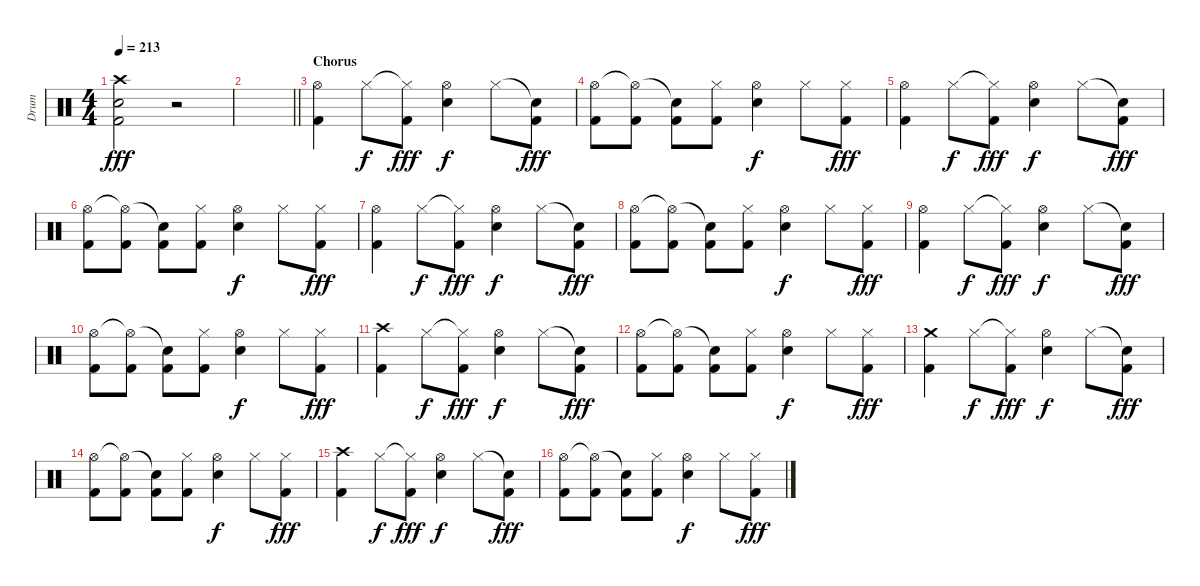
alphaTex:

\track ("Drum" "Drum") {instrument percussion}
\staff {score}
\articulation defaults
\ts (4 4)
\tempo 213
\clef neutral
\ks c
("Crash high (hit)" "Snare (hit) 2" "Kick (hit) 2").2{dy fff} r.2 |
\barLineRight lightlight
|
\section ("" "Chorus")
("Hi-Hat (open)" "Kick (hit) 2").4 "Hi-Hat (closed)".8{dy f} ("Hi-Hat (closed)"{t} "Kick (hit) 2").8{dy fff} ("Hi-Hat (open)" "Snare (hit) 2").4{dy f} "Hi-Hat (closed)".8 ("Snare (hit)"{t} "Kick (hit) 2").8{dy fff} |
("Hi-Hat (open)" "Kick (hit) 2").8 ("Hi-Hat (open)"{t} "Kick (hit) 2").8 ("Snare (hit)"{t} "Kick (hit) 2").8 ("Hi-Hat (closed)" "Kick (hit) 2").8 ("Hi-Hat (open)" "Snare (hit) 2").4{dy f} "Hi-Hat (closed)".8 ("Hi-Hat (closed)" "Kick (hit) 2").8{dy fff} |
("Hi-Hat (open)" "Kick (hit) 2").4 "Hi-Hat (closed)".8{dy f} ("Hi-Hat (closed)"{t} "Kick (hit) 2").8{dy fff} ("Hi-Hat (open)" "Snare (hit) 2").4{dy f} "Hi-Hat (closed)".8 ("Snare (hit)"{t} "Kick (hit) 2").8{dy fff} |
("Hi-Hat (open)" "Kick (hit) 2").8 ("Hi-Hat (open)"{t} "Kick (hit) 2").8 ("Snare (hit)"{t} "Kick (hit) 2").8 ("Hi-Hat (closed)" "Kick (hit) 2").8 ("Hi-Hat (open)" "Snare (hit) 2").4{dy f} "Hi-Hat (closed)".8 ("Hi-Hat (closed)" "Kick (hit) 2").8{dy fff} |
("Hi-Hat (open)" "Kick (hit) 2").4 "Hi-Hat (closed)".8{dy f} ("Hi-Hat (closed)"{t} "Kick (hit) 2").8{dy fff} ("Hi-Hat (open)" "Snare (hit) 2").4{dy f} "Hi-Hat (closed)".8 ("Snare (hit)"{t} "Kick (hit) 2").8{dy fff} |
("Hi-Hat (open)" "Kick (hit) 2").8 ("Hi-Hat (open)"{t} "Kick (hit) 2").8 ("Snare (hit)"{t} "Kick (hit) 2").8 ("Hi-Hat (closed)" "Kick (hit) 2").8 ("Hi-Hat (open)" "Snare (hit) 2").4{dy f} "Hi-Hat (closed)".8 ("Hi-Hat (closed)" "Kick (hit) 2").8{dy fff} |
("Hi-Hat (open)" "Kick (hit) 2").4 "Hi-Hat (closed)".8{dy f} ("Hi-Hat (closed)"{t} "Kick (hit) 2").8{dy fff} ("Hi-Hat (open)" "Snare (hit) 2").4{dy f} "Hi-Hat (closed)".8 ("Snare (hit)"{t} "Kick (hit) 2").8{dy fff} |
("Hi-Hat (open)" "Kick (hit) 2").8 ("Hi-Hat (open)"{t} "Kick (hit) 2").8 ("Snare (hit)"{t} "Kick (hit) 2").8 ("Hi-Hat (closed)" "Kick (hit) 2").8 ("Hi-Hat (open)" "Snare (hit) 2").4{dy f} "Hi-Hat (closed)".8 ("Hi-Hat (closed)" "Kick (hit) 2").8{dy fff} |
("Crash high (hit)" "Kick (hit) 2").4 "Hi-Hat (closed)".8{dy f} ("Hi-Hat (closed)"{t} "Kick (hit) 2").8{dy fff} ("Hi-Hat (open)" "Snare (hit) 2").4{dy f} "Hi-Hat (closed)".8 ("Snare (hit)"{t} "Kick (hit) 2").8{dy fff} |
("Hi-Hat (open)" "Kick (hit) 2").8 ("Hi-Hat (open)"{t} "Kick (hit) 2").8 ("Snare (hit)"{t} "Kick (hit) 2").8 ("Hi-Hat (closed)" "Kick (hit) 2").8 ("Hi-Hat (open)" "Snare (hit) 2").4{dy f} "Hi-Hat (closed)".8 ("Hi-Hat (closed)" "Kick (hit) 2").8{dy fff} |
("Crash medium (hit)" "Kick (hit) 2").4 "Hi-Hat (closed)".8{dy f} ("Hi-Hat (closed)"{t} "Kick (hit) 2").8{dy fff} ("Hi-Hat (open)" "Snare (hit) 2").4{dy f} "Hi-Hat (closed)".8 ("Snare (hit)"{t} "Kick (hit) 2").8{dy fff} |
("Hi-Hat (open)" "Kick (hit) 2").8 ("Hi-Hat (open)"{t} "Kick (hit) 2").8 ("Snare (hit)"{t} "Kick (hit) 2").8 ("Hi-Hat (closed)" "Kick (hit) 2").8 ("Hi-Hat (open)" "Snare (hit) 2").4{dy f} "Hi-Hat (closed)".8 ("Hi-Hat (closed)" "Kick (hit) 2").8{dy fff} |
("Crash high (hit)" "Kick (hit) 2").4 "Hi-Hat (closed)".8{dy f} ("Hi-Hat (closed)"{t} "Kick (hit) 2").8{dy fff} ("Hi-Hat (open)" "Snare (hit) 2").4{dy f} "Hi-Hat (closed)".8 ("Snare (hit)"{t} "Kick (hit) 2").8{dy fff} |
("Hi-Hat (open)" "Kick (hit) 2").8 ("Hi-Hat (open)"{t} "Kick (hit) 2").8 ("Snare (hit)"{t} "Kick (hit) 2").8 ("Hi-Hat (closed)" "Kick (hit) 2").8 ("Hi-Hat (open)" "Snare (hit) 2").4{dy f} "Hi-Hat (closed)".8 ("Hi-Hat (closed)" "Kick (hit) 2").8{dy fff}
